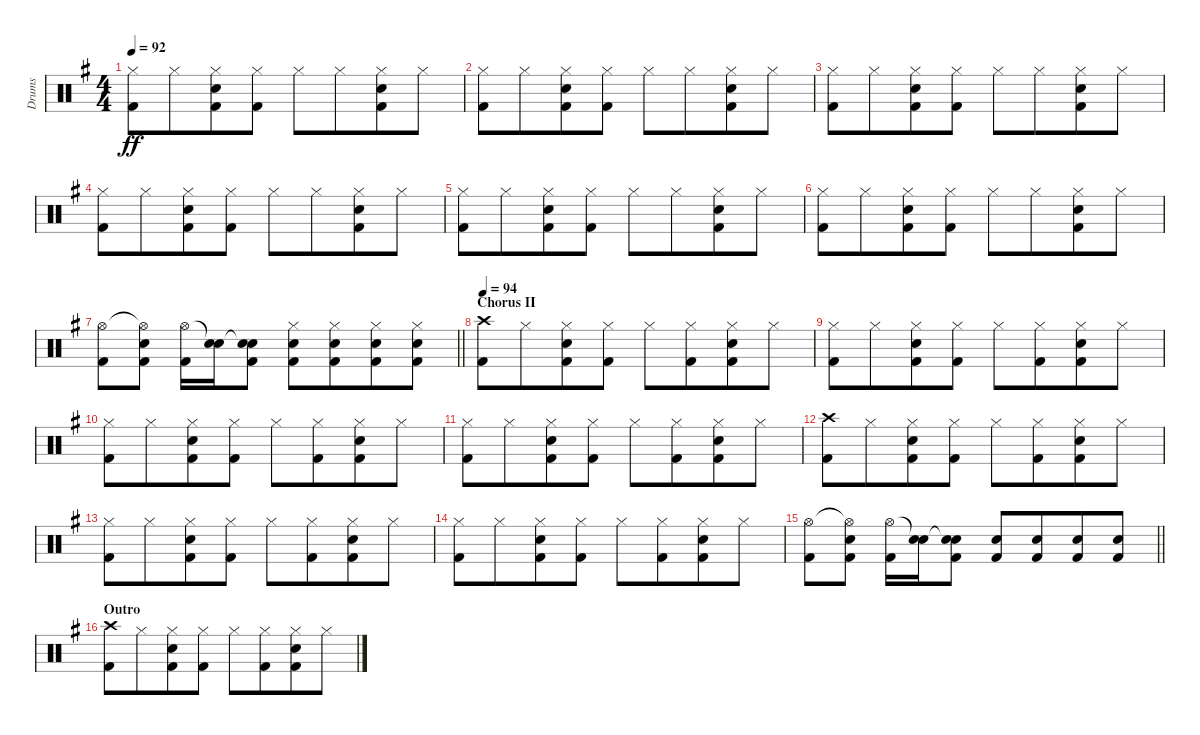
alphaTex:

\track ("Drums" "Drums") {instrument percussion}
\staff {score}
\articulation defaults
\ts (4 4)
\tempo 92
\clef neutral
\ks g
("Hi-Hat (closed)" "Kick (hit) 2").8{dy ff} "Hi-Hat (closed)".8{beam merge} ("Hi-Hat (closed)" "Electric Snare (hit)" "Kick (hit) 2").8 ("Hi-Hat (closed)" "Kick (hit) 2").8 "Hi-Hat (closed)".8 "Hi-Hat (closed)".8{beam merge} ("Hi-Hat (closed)" "Electric Snare (hit)" "Kick (hit) 2").8 "Hi-Hat (closed)".8 |
("Hi-Hat (closed)" "Kick (hit) 2").8 "Hi-Hat (closed)".8{beam merge} ("Hi-Hat (closed)" "Electric Snare (hit)" "Kick (hit) 2").8 ("Hi-Hat (closed)" "Kick (hit) 2").8 "Hi-Hat (closed)".8 "Hi-Hat (closed)".8{beam merge} ("Hi-Hat (closed)" "Electric Snare (hit)" "Kick (hit) 2").8 "Hi-Hat (closed)".8 |
("Hi-Hat (closed)" "Kick (hit) 2").8 "Hi-Hat (closed)".8{beam merge} ("Hi-Hat (closed)" "Electric Snare (hit)" "Kick (hit) 2").8 ("Hi-Hat (closed)" "Kick (hit) 2").8 "Hi-Hat (closed)".8 "Hi-Hat (closed)".8{beam merge} ("Hi-Hat (closed)" "Electric Snare (hit)" "Kick (hit) 2").8 "Hi-Hat (closed)".8 |
("Hi-Hat (closed)" "Kick (hit) 2").8 "Hi-Hat (closed)".8{beam merge} ("Hi-Hat (closed)" "Electric Snare (hit)" "Kick (hit) 2").8 ("Hi-Hat (closed)" "Kick (hit) 2").8 "Hi-Hat (closed)".8 "Hi-Hat (closed)".8{beam merge} ("Hi-Hat (closed)" "Electric Snare (hit)" "Kick (hit) 2").8 "Hi-Hat (closed)".8 |
("Hi-Hat (closed)" "Kick (hit) 2").8 "Hi-Hat (closed)".8{beam merge} ("Hi-Hat (closed)" "Electric Snare (hit)" "Kick (hit) 2").8 ("Hi-Hat (closed)" "Kick (hit) 2").8 "Hi-Hat (closed)".8 "Hi-Hat (closed)".8{beam merge} ("Hi-Hat (closed)" "Electric Snare (hit)" "Kick (hit) 2").8 "Hi-Hat (closed)".8 |
("Hi-Hat (closed)" "Kick (hit) 2").8 "Hi-Hat (closed)".8{beam merge} ("Hi-Hat (closed)" "Electric Snare (hit)" "Kick (hit) 2").8 ("Hi-Hat (closed)" "Kick (hit) 2").8 "Hi-Hat (closed)".8 "Hi-Hat (closed)".8{beam merge} ("Hi-Hat (closed)" "Electric Snare (hit)" "Kick (hit) 2").8 "Hi-Hat (closed)".8 |
\barLineRight lightlight
("Hi-Hat (open)" "Kick (hit) 2").8 ("Hi-Hat (open)"{t} "Electric Snare (hit)" "Kick (hit) 2").8 ("Hi-Hat (open)" "Kick (hit) 2").16 ("Snare (hit)"{t} "Electric Snare (hit)").16 ("Snare (hit)"{t} "Electric Snare (hit)" "Kick (hit) 2").8 ("Hi-Hat (closed)" "Electric Snare (hit)" "Kick (hit) 2").8 ("Hi-Hat (closed)" "Electric Snare (hit)" "Kick (hit) 2").8{beam merge} ("Hi-Hat (closed)" "Snare (hit) 2" "Kick (hit) 2").8 ("Hi-Hat (closed)" "Snare (hit) 2" "Kick (hit) 2").8 |
\section ("" "Chorus II")
\tempo 94
("Crash high (hit)" "Kick (hit) 2").8 "Hi-Hat (closed)".8{beam merge} ("Hi-Hat (closed)" "Electric Snare (hit)" "Kick (hit) 2").8 ("Hi-Hat (closed)" "Kick (hit) 2").8 "Hi-Hat (closed)".8 ("Hi-Hat (closed)" "Kick (hit) 2").8{beam merge} ("Hi-Hat (closed)" "Electric Snare (hit)" "Kick (hit) 2").8 "Hi-Hat (closed)".8 |
("Hi-Hat (closed)" "Kick (hit) 2").8 "Hi-Hat (closed)".8{beam merge} ("Hi-Hat (closed)" "Electric Snare (hit)" "Kick (hit) 2").8 ("Hi-Hat (closed)" "Kick (hit) 2").8 "Hi-Hat (closed)".8 ("Hi-Hat (closed)" "Kick (hit) 2").8{beam merge} ("Hi-Hat (closed)" "Electric Snare (hit)" "Kick (hit) 2").8 "Hi-Hat (closed)".8 |
("Hi-Hat (closed)" "Kick (hit) 2").8 "Hi-Hat (closed)".8{beam merge} ("Hi-Hat (closed)" "Electric Snare (hit)" "Kick (hit) 2").8 ("Hi-Hat (closed)" "Kick (hit) 2").8 "Hi-Hat (closed)".8 ("Hi-Hat (closed)" "Kick (hit) 2").8{beam merge} ("Hi-Hat (closed)" "Electric Snare (hit)" "Kick (hit) 2").8 "Hi-Hat (closed)".8 |
("Hi-Hat (closed)" "Kick (hit) 2").8 "Hi-Hat (closed)".8{beam merge} ("Hi-Hat (closed)" "Electric Snare (hit)" "Kick (hit) 2").8 ("Hi-Hat (closed)" "Kick (hit) 2").8 "Hi-Hat (closed)".8 ("Hi-Hat (closed)" "Kick (hit) 2").8{beam merge} ("Hi-Hat (closed)" "Electric Snare (hit)" "Kick (hit) 2").8 "Hi-Hat (closed)".8 |
("Crash high (hit)" "Kick (hit) 2").8 "Hi-Hat (closed)".8{beam merge} ("Hi-Hat (closed)" "Electric Snare (hit)" "Kick (hit) 2").8 ("Hi-Hat (closed)" "Kick (hit) 2").8 "Hi-Hat (closed)".8 ("Hi-Hat (closed)" "Kick (hit) 2").8{beam merge} ("Hi-Hat (closed)" "Electric Snare (hit)" "Kick (hit) 2").8 "Hi-Hat (closed)".8 |
("Hi-Hat (closed)" "Kick (hit) 2").8 "Hi-Hat (closed)".8{beam merge} ("Hi-Hat (closed)" "Electric Snare (hit)" "Kick (hit) 2").8 ("Hi-Hat (closed)" "Kick (hit) 2").8 "Hi-Hat (closed)".8 ("Hi-Hat (closed)" "Kick (hit) 2").8{beam merge} ("Hi-Hat (closed)" "Electric Snare (hit)" "Kick (hit) 2").8 "Hi-Hat (closed)".8 |
("Hi-Hat (closed)" "Kick (hit) 2").8 "Hi-Hat (closed)".8{beam merge} ("Hi-Hat (closed)" "Electric Snare (hit)" "Kick (hit) 2").8 ("Hi-Hat (closed)" "Kick (hit) 2").8 "Hi-Hat (closed)".8 ("Hi-Hat (closed)" "Kick (hit) 2").8{beam merge} ("Hi-Hat (closed)" "Electric Snare (hit)" "Kick (hit) 2").8 "Hi-Hat (closed)".8 |
\barLineRight lightlight
("Hi-Hat (open)" "Kick (hit) 2").8 ("Hi-Hat (open)"{t} "Electric Snare (hit)" "Kick (hit) 2").8 ("Hi-Hat (open)" "Kick (hit) 2").16 ("Snare (hit)"{t} "Electric Snare (hit)").16 ("Snare (hit)"{t} "Electric Snare (hit)" "Kick (hit) 2").8 ("Electric Snare (hit)" "Kick (hit) 2").8 ("Electric Snare (hit)" "Kick (hit) 2").8{beam merge} ("Snare (hit) 2" "Kick (hit) 2").8 ("Snare (hit) 2" "Kick (hit) 2").8 |
\section ("" "Outro")
("Crash high (hit)" "Kick (hit) 2").8 "Hi-Hat (closed)".8{beam merge} ("Hi-Hat (closed)" "Electric Snare (hit)" "Kick (hit) 2").8 ("Hi-Hat (closed)" "Kick (hit) 2").8 "Hi-Hat (closed)".8 ("Hi-Hat (closed)" "Kick (hit) 2").8{beam merge} ("Hi-Hat (closed)" "Electric Snare (hit)" "Kick (hit) 2").8 "Hi-Hat (closed)".8
